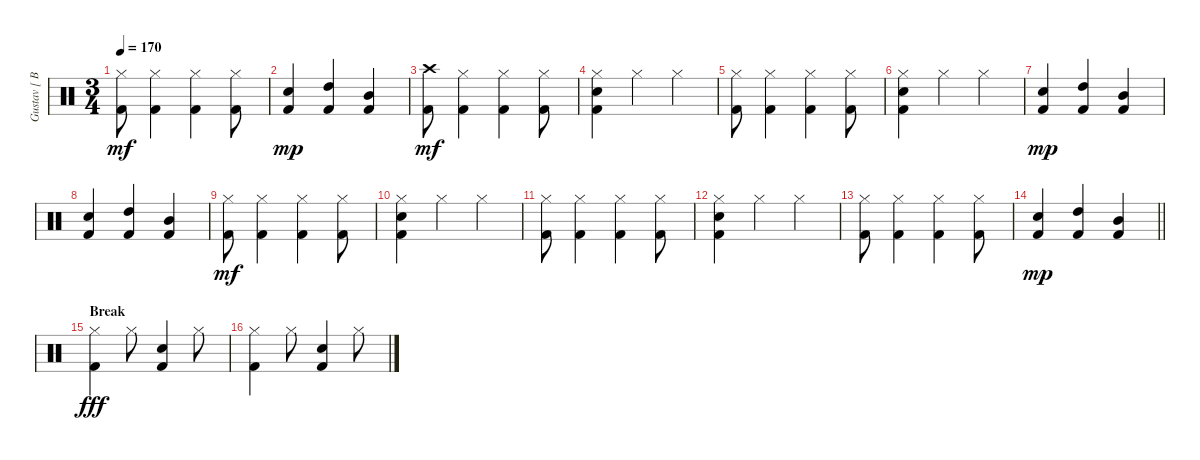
\track ("Gustav [ Batterie ]" "Gustav [ B") {instrument percussion}
\staff {score}
\articulation defaults
\ts (3 4)
\tempo 170
\clef neutral
\ks c
("Hi-Hat (closed)" "Kick (hit) 2").8{dy mf} ("Hi-Hat (closed)" "Kick (hit) 2").4 ("Hi-Hat (closed)" "Kick (hit) 2").4 ("Hi-Hat (closed)" "Kick (hit) 2").8 |
("Snare (hit) 2" "Kick (hit) 2").4{dy mp} ("High Tom (hit)" "Kick (hit) 2").4 ("Mid Tom (hit)" "Kick (hit) 2").4 |
("Crash high (hit)" "Kick (hit) 2").8{dy mf} ("Hi-Hat (closed)" "Kick (hit) 2").4 ("Hi-Hat (closed)" "Kick (hit) 2").4 ("Hi-Hat (closed)" "Kick (hit) 2").8 |
("Hi-Hat (closed)" "Snare (hit) 2" "Kick (hit) 2").4 "Hi-Hat (closed)".4 "Hi-Hat (closed)".4 |
("Hi-Hat (closed)" "Kick (hit) 2").8 ("Hi-Hat (closed)" "Kick (hit) 2").4 ("Hi-Hat (closed)" "Kick (hit) 2").4 ("Hi-Hat (closed)" "Kick (hit) 2").8 |
("Hi-Hat (closed)" "Snare (hit) 2" "Kick (hit) 2").4 "Hi-Hat (closed)".4 "Hi-Hat (closed)".4 |
("Snare (hit) 2" "Kick (hit) 2").4{dy mp} ("High Tom (hit)" "Kick (hit) 2").4 ("Mid Tom (hit)" "Kick (hit) 2").4 |
("Snare (hit) 2" "Kick (hit) 2").4 ("High Tom (hit)" "Kick (hit) 2").4 ("Mid Tom (hit)" "Kick (hit) 2").4 |
("Hi-Hat (closed)" "Kick (hit) 2").8{dy mf} ("Hi-Hat (closed)" "Kick (hit) 2").4 ("Hi-Hat (closed)" "Kick (hit) 2").4 ("Hi-Hat (closed)" "Kick (hit) 2").8 |
("Hi-Hat (closed)" "Snare (hit) 2" "Kick (hit) 2").4 "Hi-Hat (closed)".4 "Hi-Hat (closed)".4 |
("Hi-Hat (closed)" "Kick (hit) 2").8 ("Hi-Hat (closed)" "Kick (hit) 2").4 ("Hi-Hat (closed)" "Kick (hit) 2").4 ("Hi-Hat (closed)" "Kick (hit) 2").8 |
("Hi-Hat (closed)" "Snare (hit) 2" "Kick (hit) 2").4 "Hi-Hat (closed)".4 "Hi-Hat (closed)".4 |
("Hi-Hat (closed)" "Kick (hit) 2").8 ("Hi-Hat (closed)" "Kick (hit) 2").4 ("Hi-Hat (closed)" "Kick (hit) 2").4 ("Hi-Hat (closed)" "Kick (hit) 2").8 |
\barLineRight lightlight
("Snare (hit) 2" "Kick (hit) 2").4{dy mp} ("High Tom (hit)" "Kick (hit) 2").4 ("Mid Tom (hit)" "Kick (hit) 2").4 |
\section ("" "Break")
("Hi-Hat (closed)" "Kick (hit) 2").4{dy fff} "Hi-Hat (closed)".8 ("Snare (hit) 2" "Kick (hit) 2").4 "Hi-Hat (closed)".8 |
("Hi-Hat (closed)" "Kick (hit) 2").4 "Hi-Hat (closed)".8 ("Snare (hit) 2" "Kick (hit) 2").4 "Hi-Hat (closed)".8
